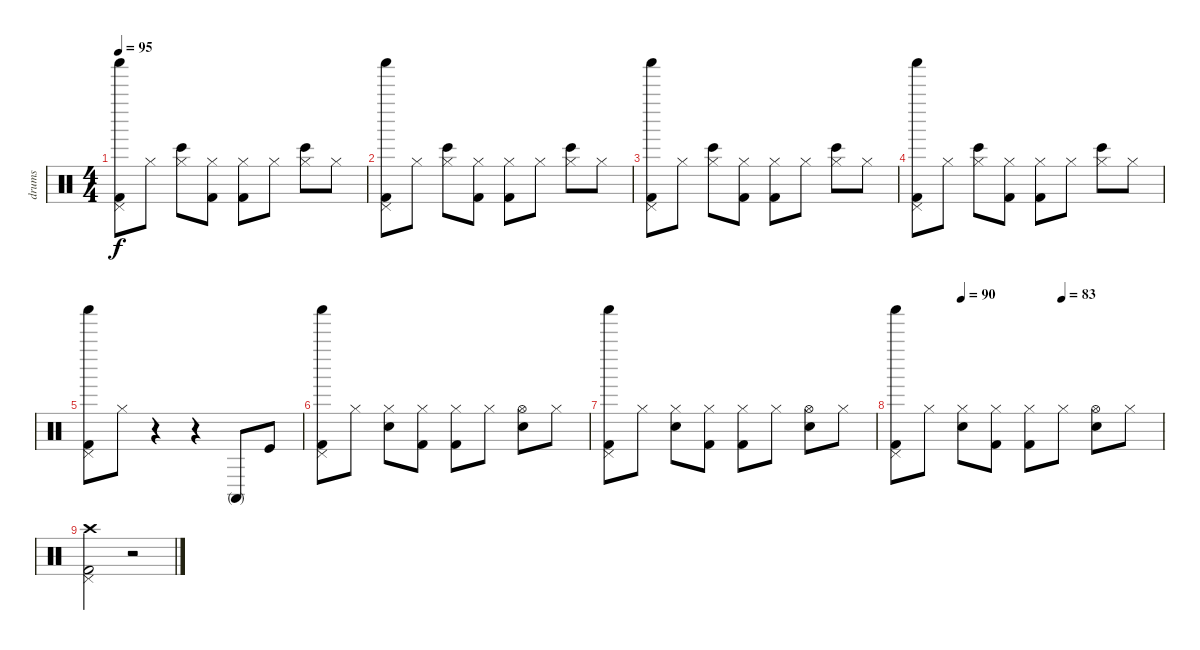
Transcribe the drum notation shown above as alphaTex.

\track ("drums" "drums") {instrument percussion}
\staff {score}
\articulation defaults
\ts (4 4)
\tempo 95
\clef neutral
\ks c
("Kick (hit) 2" "Shaker (hit)" "Pedal Hi-Hat (hit)").8{dy f} "Hi-Hat (closed)".8 ("Bongo High (hit)" "Hi-Hat (closed)").8 ("Kick (hit) 2" "Hi-Hat (closed)").8 ("Kick (hit) 2" "Hi-Hat (closed)").8 "Hi-Hat (closed)".8 ("Bongo High (hit)" "Hi-Hat (closed)").8 "Hi-Hat (closed)".8 |
("Kick (hit) 2" "Shaker (hit)" "Pedal Hi-Hat (hit)").8 "Hi-Hat (closed)".8 ("Bongo High (hit)" "Hi-Hat (closed)").8 ("Kick (hit) 2" "Hi-Hat (closed)").8 ("Kick (hit) 2" "Hi-Hat (closed)").8 "Hi-Hat (closed)".8 ("Bongo High (hit)" "Hi-Hat (closed)").8 "Hi-Hat (closed)".8 |
("Kick (hit) 2" "Shaker (hit)" "Pedal Hi-Hat (hit)").8 "Hi-Hat (closed)".8 ("Bongo High (hit)" "Hi-Hat (closed)").8 ("Kick (hit) 2" "Hi-Hat (closed)").8 ("Kick (hit) 2" "Hi-Hat (closed)").8 "Hi-Hat (closed)".8 ("Bongo High (hit)" "Hi-Hat (closed)").8 "Hi-Hat (closed)".8 |
("Kick (hit) 2" "Shaker (hit)" "Pedal Hi-Hat (hit)").8 "Hi-Hat (closed)".8 ("Bongo High (hit)" "Hi-Hat (closed)").8 ("Kick (hit) 2" "Hi-Hat (closed)").8 ("Kick (hit) 2" "Hi-Hat (closed)").8 "Hi-Hat (closed)".8 ("Bongo High (hit)" "Hi-Hat (closed)").8 "Hi-Hat (closed)".8 |
("Kick (hit) 2" "Shaker (hit)" "Pedal Hi-Hat (hit)").8 "Hi-Hat (closed)".8 r.4 r.4 "Conga high (mute)".8 "Kick (hit)".8 |
("Kick (hit) 2" "Shaker (hit)" "Pedal Hi-Hat (hit)").8 "Hi-Hat (closed)".8 ("Snare (hit) 2" "Hi-Hat (closed)").8 ("Kick (hit) 2" "Hi-Hat (closed)").8 ("Kick (hit) 2" "Hi-Hat (closed)").8 "Hi-Hat (closed)".8 ("Snare (hit) 2" "Hi-Hat (open)").8 "Hi-Hat (closed)".8 |
("Kick (hit) 2" "Shaker (hit)" "Pedal Hi-Hat (hit)").8 "Hi-Hat (closed)".8 ("Snare (hit) 2" "Hi-Hat (closed)").8 ("Kick (hit) 2" "Hi-Hat (closed)").8 ("Kick (hit) 2" "Hi-Hat (closed)").8 "Hi-Hat (closed)".8 ("Snare (hit) 2" "Hi-Hat (open)").8 "Hi-Hat (closed)".8 |
\tempo (90 0.25)
\tempo (83 0.625)
("Kick (hit) 2" "Shaker (hit)" "Pedal Hi-Hat (hit)").8 "Hi-Hat (closed)".8 ("Snare (hit) 2" "Hi-Hat (closed)").8 ("Kick (hit) 2" "Hi-Hat (closed)").8 ("Kick (hit) 2" "Hi-Hat (closed)").8 "Hi-Hat (closed)".8 ("Snare (hit) 2" "Hi-Hat (open)").8 "Hi-Hat (closed)".8 |
("Kick (hit) 2" "Crash high (hit)" "Pedal Hi-Hat (hit)").2 r.2
